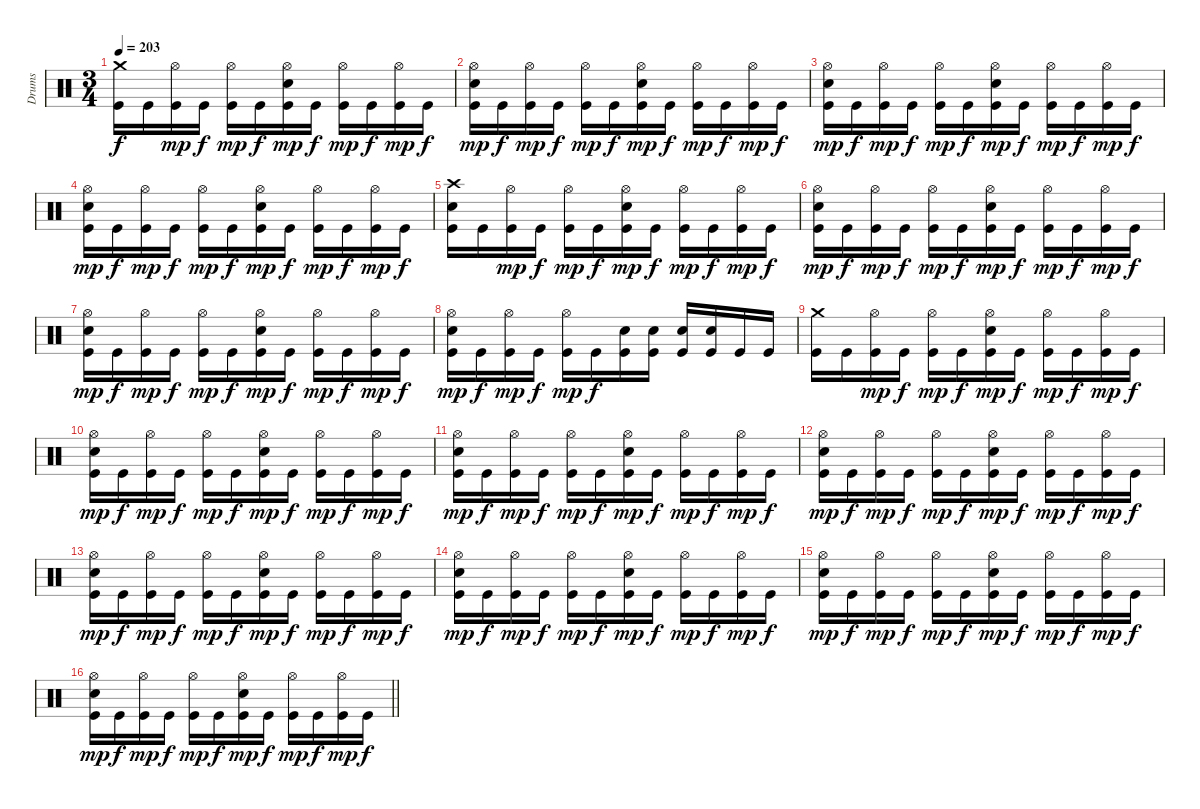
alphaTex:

\track ("Drums" "Drums") {instrument percussion}
\staff {score}
\articulation defaults
\ts (3 4)
\tempo 203
\clef neutral
\ks c
("Crash medium (hit)" "Kick (hit)").16{dy f} "Kick (hit)".16 ("Hi-Hat (open)" "Kick (hit)").16{dy mp} "Kick (hit)".16{dy f} ("Hi-Hat (open)" "Kick (hit)").16{dy mp} "Kick (hit)".16{dy f} ("Hi-Hat (open)" "Electric Snare (hit)" "Kick (hit)").16{dy mp} "Kick (hit)".16{dy f} ("Hi-Hat (open)" "Kick (hit)").16{dy mp} "Kick (hit)".16{dy f} ("Hi-Hat (open)" "Kick (hit)").16{dy mp} "Kick (hit)".16{dy f} |
("Hi-Hat (open)" "Electric Snare (hit)" "Kick (hit)").16{dy mp} "Kick (hit)".16{dy f} ("Hi-Hat (open)" "Kick (hit)").16{dy mp} "Kick (hit)".16{dy f} ("Hi-Hat (open)" "Kick (hit)").16{dy mp} "Kick (hit)".16{dy f} ("Hi-Hat (open)" "Electric Snare (hit)" "Kick (hit)").16{dy mp} "Kick (hit)".16{dy f} ("Hi-Hat (open)" "Kick (hit)").16{dy mp} "Kick (hit)".16{dy f} ("Hi-Hat (open)" "Kick (hit)").16{dy mp} "Kick (hit)".16{dy f} |
("Hi-Hat (open)" "Electric Snare (hit)" "Kick (hit)").16{dy mp} "Kick (hit)".16{dy f} ("Hi-Hat (open)" "Kick (hit)").16{dy mp} "Kick (hit)".16{dy f} ("Hi-Hat (open)" "Kick (hit)").16{dy mp} "Kick (hit)".16{dy f} ("Hi-Hat (open)" "Electric Snare (hit)" "Kick (hit)").16{dy mp} "Kick (hit)".16{dy f} ("Hi-Hat (open)" "Kick (hit)").16{dy mp} "Kick (hit)".16{dy f} ("Hi-Hat (open)" "Kick (hit)").16{dy mp} "Kick (hit)".16{dy f} |
("Hi-Hat (open)" "Electric Snare (hit)" "Kick (hit)").16{dy mp} "Kick (hit)".16{dy f} ("Hi-Hat (open)" "Kick (hit)").16{dy mp} "Kick (hit)".16{dy f} ("Hi-Hat (open)" "Kick (hit)").16{dy mp} "Kick (hit)".16{dy f} ("Hi-Hat (open)" "Electric Snare (hit)" "Kick (hit)").16{dy mp} "Kick (hit)".16{dy f} ("Hi-Hat (open)" "Kick (hit)").16{dy mp} "Kick (hit)".16{dy f} ("Hi-Hat (open)" "Kick (hit)").16{dy mp} "Kick (hit)".16{dy f} |
("Crash high (hit)" "Electric Snare (hit)" "Kick (hit)").16 "Kick (hit)".16 ("Hi-Hat (open)" "Kick (hit)").16{dy mp} "Kick (hit)".16{dy f} ("Hi-Hat (open)" "Kick (hit)").16{dy mp} "Kick (hit)".16{dy f} ("Hi-Hat (open)" "Electric Snare (hit)" "Kick (hit)").16{dy mp} "Kick (hit)".16{dy f} ("Hi-Hat (open)" "Kick (hit)").16{dy mp} "Kick (hit)".16{dy f} ("Hi-Hat (open)" "Kick (hit)").16{dy mp} "Kick (hit)".16{dy f} |
("Hi-Hat (open)" "Electric Snare (hit)" "Kick (hit)").16{dy mp} "Kick (hit)".16{dy f} ("Hi-Hat (open)" "Kick (hit)").16{dy mp} "Kick (hit)".16{dy f} ("Hi-Hat (open)" "Kick (hit)").16{dy mp} "Kick (hit)".16{dy f} ("Hi-Hat (open)" "Electric Snare (hit)" "Kick (hit)").16{dy mp} "Kick (hit)".16{dy f} ("Hi-Hat (open)" "Kick (hit)").16{dy mp} "Kick (hit)".16{dy f} ("Hi-Hat (open)" "Kick (hit)").16{dy mp} "Kick (hit)".16{dy f} |
("Hi-Hat (open)" "Electric Snare (hit)" "Kick (hit)").16{dy mp} "Kick (hit)".16{dy f} ("Hi-Hat (open)" "Kick (hit)").16{dy mp} "Kick (hit)".16{dy f} ("Hi-Hat (open)" "Kick (hit)").16{dy mp} "Kick (hit)".16{dy f} ("Hi-Hat (open)" "Electric Snare (hit)" "Kick (hit)").16{dy mp} "Kick (hit)".16{dy f} ("Hi-Hat (open)" "Kick (hit)").16{dy mp} "Kick (hit)".16{dy f} ("Hi-Hat (open)" "Kick (hit)").16{dy mp} "Kick (hit)".16{dy f} |
("Hi-Hat (open)" "Electric Snare (hit)" "Kick (hit)").16{dy mp} "Kick (hit)".16{dy f} ("Hi-Hat (open)" "Kick (hit)").16{dy mp} "Kick (hit)".16{dy f} ("Hi-Hat (open)" "Kick (hit)").16{dy mp} "Kick (hit)".16{dy f} ("Electric Snare (hit)" "Kick (hit)").16 ("Electric Snare (hit)" "Kick (hit)").16 ("Electric Snare (hit)" "Kick (hit)").16 ("Electric Snare (hit)" "Kick (hit)").16 "Kick (hit)".16 "Kick (hit)".16 |
("Crash medium (hit)" "Kick (hit)").16 "Kick (hit)".16 ("Hi-Hat (open)" "Kick (hit)").16{dy mp} "Kick (hit)".16{dy f} ("Hi-Hat (open)" "Kick (hit)").16{dy mp} "Kick (hit)".16{dy f} ("Hi-Hat (open)" "Electric Snare (hit)" "Kick (hit)").16{dy mp} "Kick (hit)".16{dy f} ("Hi-Hat (open)" "Kick (hit)").16{dy mp} "Kick (hit)".16{dy f} ("Hi-Hat (open)" "Kick (hit)").16{dy mp} "Kick (hit)".16{dy f} |
("Hi-Hat (open)" "Electric Snare (hit)" "Kick (hit)").16{dy mp} "Kick (hit)".16{dy f} ("Hi-Hat (open)" "Kick (hit)").16{dy mp} "Kick (hit)".16{dy f} ("Hi-Hat (open)" "Kick (hit)").16{dy mp} "Kick (hit)".16{dy f} ("Hi-Hat (open)" "Electric Snare (hit)" "Kick (hit)").16{dy mp} "Kick (hit)".16{dy f} ("Hi-Hat (open)" "Kick (hit)").16{dy mp} "Kick (hit)".16{dy f} ("Hi-Hat (open)" "Kick (hit)").16{dy mp} "Kick (hit)".16{dy f} |
("Hi-Hat (open)" "Electric Snare (hit)" "Kick (hit)").16{dy mp} "Kick (hit)".16{dy f} ("Hi-Hat (open)" "Kick (hit)").16{dy mp} "Kick (hit)".16{dy f} ("Hi-Hat (open)" "Kick (hit)").16{dy mp} "Kick (hit)".16{dy f} ("Hi-Hat (open)" "Electric Snare (hit)" "Kick (hit)").16{dy mp} "Kick (hit)".16{dy f} ("Hi-Hat (open)" "Kick (hit)").16{dy mp} "Kick (hit)".16{dy f} ("Hi-Hat (open)" "Kick (hit)").16{dy mp} "Kick (hit)".16{dy f} |
("Hi-Hat (open)" "Electric Snare (hit)" "Kick (hit)").16{dy mp} "Kick (hit)".16{dy f} ("Hi-Hat (open)" "Kick (hit)").16{dy mp} "Kick (hit)".16{dy f} ("Hi-Hat (open)" "Kick (hit)").16{dy mp} "Kick (hit)".16{dy f} ("Hi-Hat (open)" "Electric Snare (hit)" "Kick (hit)").16{dy mp} "Kick (hit)".16{dy f} ("Hi-Hat (open)" "Kick (hit)").16{dy mp} "Kick (hit)".16{dy f} ("Hi-Hat (open)" "Kick (hit)").16{dy mp} "Kick (hit)".16{dy f} |
("Hi-Hat (open)" "Electric Snare (hit)" "Kick (hit)").16{dy mp} "Kick (hit)".16{dy f} ("Hi-Hat (open)" "Kick (hit)").16{dy mp} "Kick (hit)".16{dy f} ("Hi-Hat (open)" "Kick (hit)").16{dy mp} "Kick (hit)".16{dy f} ("Hi-Hat (open)" "Electric Snare (hit)" "Kick (hit)").16{dy mp} "Kick (hit)".16{dy f} ("Hi-Hat (open)" "Kick (hit)").16{dy mp} "Kick (hit)".16{dy f} ("Hi-Hat (open)" "Kick (hit)").16{dy mp} "Kick (hit)".16{dy f} |
("Hi-Hat (open)" "Electric Snare (hit)" "Kick (hit)").16{dy mp} "Kick (hit)".16{dy f} ("Hi-Hat (open)" "Kick (hit)").16{dy mp} "Kick (hit)".16{dy f} ("Hi-Hat (open)" "Kick (hit)").16{dy mp} "Kick (hit)".16{dy f} ("Hi-Hat (open)" "Electric Snare (hit)" "Kick (hit)").16{dy mp} "Kick (hit)".16{dy f} ("Hi-Hat (open)" "Kick (hit)").16{dy mp} "Kick (hit)".16{dy f} ("Hi-Hat (open)" "Kick (hit)").16{dy mp} "Kick (hit)".16{dy f} |
("Hi-Hat (open)" "Electric Snare (hit)" "Kick (hit)").16{dy mp} "Kick (hit)".16{dy f} ("Hi-Hat (open)" "Kick (hit)").16{dy mp} "Kick (hit)".16{dy f} ("Hi-Hat (open)" "Kick (hit)").16{dy mp} "Kick (hit)".16{dy f} ("Hi-Hat (open)" "Electric Snare (hit)" "Kick (hit)").16{dy mp} "Kick (hit)".16{dy f} ("Hi-Hat (open)" "Kick (hit)").16{dy mp} "Kick (hit)".16{dy f} ("Hi-Hat (open)" "Kick (hit)").16{dy mp} "Kick (hit)".16{dy f} |
\barLineRight lightlight
("Hi-Hat (open)" "Electric Snare (hit)" "Kick (hit)").16{dy mp} "Kick (hit)".16{dy f} ("Hi-Hat (open)" "Kick (hit)").16{dy mp} "Kick (hit)".16{dy f} ("Hi-Hat (open)" "Kick (hit)").16{dy mp} "Kick (hit)".16{dy f} ("Hi-Hat (open)" "Electric Snare (hit)" "Kick (hit)").16{dy mp} "Kick (hit)".16{dy f} ("Hi-Hat (open)" "Kick (hit)").16{dy mp} "Kick (hit)".16{dy f} ("Hi-Hat (open)" "Kick (hit)").16{dy mp} "Kick (hit)".16{dy f}
